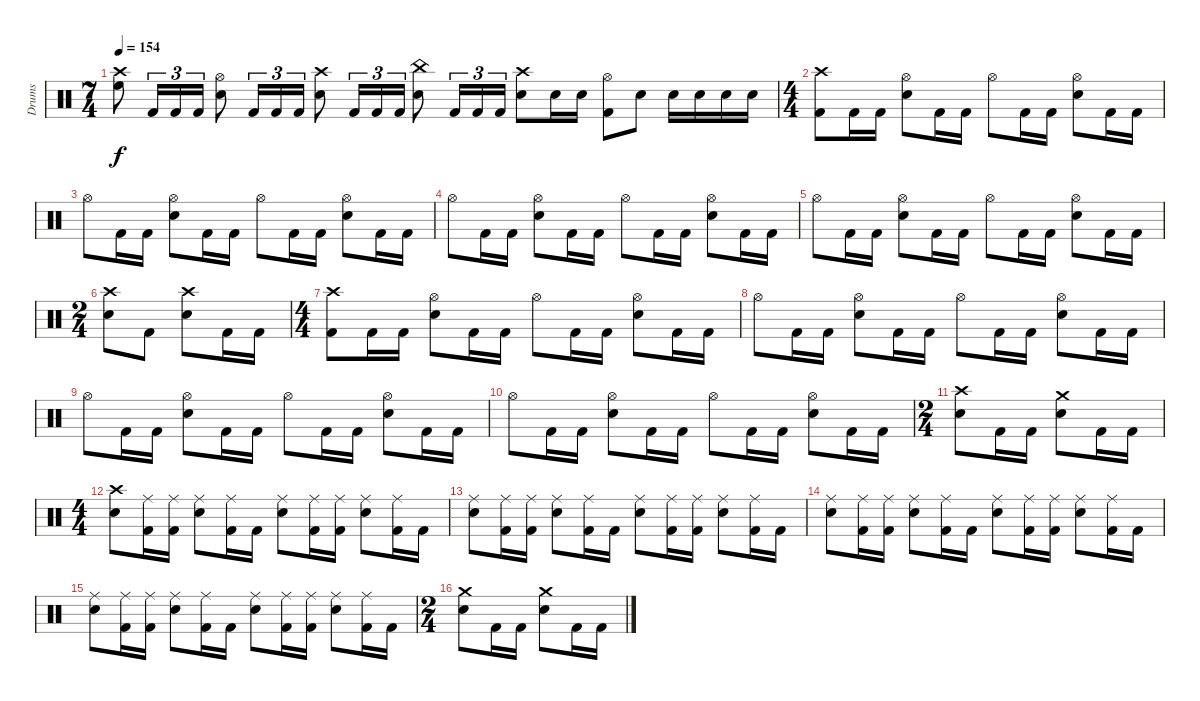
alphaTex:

\track ("Drums" "Drums") {instrument percussion}
\staff {score}
\articulation defaults
\ts (7 4)
\tempo 154
\clef neutral
\ks c
("Crash high (hit)" "High Floor Tom (hit)").8{dy f} "Kick (hit) 2".16{tu (3 2)} "Kick (hit) 2".16{tu (3 2)} "Kick (hit) 2".16{tu (3 2)} ("Hi-Hat (open)" "Snare (hit) 2").8 "Kick (hit) 2".16{tu (3 2)} "Kick (hit) 2".16{tu (3 2)} "Kick (hit) 2".16{tu (3 2)} ("Crash high (hit)" "Snare (hit) 2").8 "Kick (hit) 2".16{tu (3 2)} "Kick (hit) 2".16{tu (3 2)} "Kick (hit) 2".16{tu (3 2)} ("China (hit)" "Snare (hit) 2").8 "Kick (hit) 2".16{tu (3 2)} "Kick (hit) 2".16{tu (3 2)} "Kick (hit) 2".16{tu (3 2)} ("Crash high (hit)" "Snare (hit) 2").8 "Snare (hit) 2".16 "Snare (hit) 2".16 ("Hi-Hat (open)" "Kick (hit) 2").8 "Snare (hit) 2".8 "Snare (hit) 2".16 "Snare (hit) 2".16 "Snare (hit) 2".16 "Snare (hit) 2".16 |
\ts (4 4)
("Crash high (hit)" "Kick (hit) 2").8 "Kick (hit) 2".16 "Kick (hit) 2".16 ("Hi-Hat (open)" "Snare (hit) 2").8 "Kick (hit) 2".16 "Kick (hit) 2".16 "Hi-Hat (open)".8 "Kick (hit) 2".16 "Kick (hit) 2".16 ("Hi-Hat (open)" "Snare (hit) 2").8 "Kick (hit) 2".16 "Kick (hit) 2".16 |
"Hi-Hat (open)".8 "Kick (hit) 2".16 "Kick (hit) 2".16 ("Hi-Hat (open)" "Snare (hit) 2").8 "Kick (hit) 2".16 "Kick (hit) 2".16 "Hi-Hat (open)".8 "Kick (hit) 2".16 "Kick (hit) 2".16 ("Hi-Hat (open)" "Snare (hit) 2").8 "Kick (hit) 2".16 "Kick (hit) 2".16 |
"Hi-Hat (open)".8 "Kick (hit) 2".16 "Kick (hit) 2".16 ("Hi-Hat (open)" "Snare (hit) 2").8 "Kick (hit) 2".16 "Kick (hit) 2".16 "Hi-Hat (open)".8 "Kick (hit) 2".16 "Kick (hit) 2".16 ("Hi-Hat (open)" "Snare (hit) 2").8 "Kick (hit) 2".16 "Kick (hit) 2".16 |
"Hi-Hat (open)".8 "Kick (hit) 2".16 "Kick (hit) 2".16 ("Hi-Hat (open)" "Snare (hit) 2").8 "Kick (hit) 2".16 "Kick (hit) 2".16 "Hi-Hat (open)".8 "Kick (hit) 2".16 "Kick (hit) 2".16 ("Hi-Hat (open)" "Snare (hit) 2").8 "Kick (hit) 2".16 "Kick (hit) 2".16 |
\ts (2 4)
("Crash high (hit)" "Snare (hit) 2").8 "Kick (hit) 2".8 ("Crash high (hit)" "Snare (hit) 2").8 "Kick (hit) 2".16 "Kick (hit) 2".16 |
\ts (4 4)
("Crash high (hit)" "Kick (hit) 2").8 "Kick (hit) 2".16 "Kick (hit) 2".16 ("Hi-Hat (open)" "Snare (hit) 2").8 "Kick (hit) 2".16 "Kick (hit) 2".16 "Hi-Hat (open)".8 "Kick (hit) 2".16 "Kick (hit) 2".16 ("Hi-Hat (open)" "Snare (hit) 2").8 "Kick (hit) 2".16 "Kick (hit) 2".16 |
"Hi-Hat (open)".8 "Kick (hit) 2".16 "Kick (hit) 2".16 ("Hi-Hat (open)" "Snare (hit) 2").8 "Kick (hit) 2".16 "Kick (hit) 2".16 "Hi-Hat (open)".8 "Kick (hit) 2".16 "Kick (hit) 2".16 ("Hi-Hat (open)" "Snare (hit) 2").8 "Kick (hit) 2".16 "Kick (hit) 2".16 |
"Hi-Hat (open)".8 "Kick (hit) 2".16 "Kick (hit) 2".16 ("Hi-Hat (open)" "Snare (hit) 2").8 "Kick (hit) 2".16 "Kick (hit) 2".16 "Hi-Hat (open)".8 "Kick (hit) 2".16 "Kick (hit) 2".16 ("Hi-Hat (open)" "Snare (hit) 2").8 "Kick (hit) 2".16 "Kick (hit) 2".16 |
"Hi-Hat (open)".8 "Kick (hit) 2".16 "Kick (hit) 2".16 ("Hi-Hat (open)" "Snare (hit) 2").8 "Kick (hit) 2".16 "Kick (hit) 2".16 "Hi-Hat (open)".8 "Kick (hit) 2".16 "Kick (hit) 2".16 ("Hi-Hat (open)" "Snare (hit) 2").8 "Kick (hit) 2".16 "Kick (hit) 2".16 |
\ts (2 4)
("Crash high (hit)" "Snare (hit) 2").8 "Kick (hit) 2".16 "Kick (hit) 2".16 ("Crash medium (hit)" "Snare (hit) 2").8 "Kick (hit) 2".16 "Kick (hit) 2".16 |
\ts (4 4)
("Crash high (hit)" "Snare (hit) 2").8 ("Ride (middle)" "Kick (hit) 2").16 ("Ride (middle)" "Kick (hit) 2").16 ("Ride (middle)" "Snare (hit) 2").8 ("Ride (middle)" "Kick (hit) 2").16 "Kick (hit) 2".16 ("Ride (middle)" "Snare (hit) 2").8 ("Ride (middle)" "Kick (hit) 2").16 ("Ride (middle)" "Kick (hit) 2").16 ("Ride (middle)" "Snare (hit) 2").8 ("Ride (middle)" "Kick (hit) 2").16 "Kick (hit) 2".16 |
("Ride (middle)" "Snare (hit) 2").8 ("Ride (middle)" "Kick (hit) 2").16 ("Ride (middle)" "Kick (hit) 2").16 ("Ride (middle)" "Snare (hit) 2").8 ("Ride (middle)" "Kick (hit) 2").16 "Kick (hit) 2".16 ("Ride (middle)" "Snare (hit) 2").8 ("Ride (middle)" "Kick (hit) 2").16 ("Ride (middle)" "Kick (hit) 2").16 ("Ride (middle)" "Snare (hit) 2").8 ("Ride (middle)" "Kick (hit) 2").16 "Kick (hit) 2".16 |
("Ride (middle)" "Snare (hit) 2").8 ("Ride (middle)" "Kick (hit) 2").16 ("Ride (middle)" "Kick (hit) 2").16 ("Ride (middle)" "Snare (hit) 2").8 ("Ride (middle)" "Kick (hit) 2").16 "Kick (hit) 2".16 ("Ride (middle)" "Snare (hit) 2").8 ("Ride (middle)" "Kick (hit) 2").16 ("Ride (middle)" "Kick (hit) 2").16 ("Ride (middle)" "Snare (hit) 2").8 ("Ride (middle)" "Kick (hit) 2").16 "Kick (hit) 2".16 |
("Ride (middle)" "Snare (hit) 2").8 ("Ride (middle)" "Kick (hit) 2").16 ("Ride (middle)" "Kick (hit) 2").16 ("Ride (middle)" "Snare (hit) 2").8 ("Ride (middle)" "Kick (hit) 2").16 "Kick (hit) 2".16 ("Ride (middle)" "Snare (hit) 2").8 ("Ride (middle)" "Kick (hit) 2").16 ("Ride (middle)" "Kick (hit) 2").16 ("Ride (middle)" "Snare (hit) 2").8 ("Ride (middle)" "Kick (hit) 2").16 "Kick (hit) 2".16 |
\ts (2 4)
("Crash medium (hit)" "Snare (hit) 2").8 "Kick (hit) 2".16 "Kick (hit) 2".16 ("Crash medium (hit)" "Snare (hit) 2").8 "Kick (hit) 2".16 "Kick (hit) 2".16
